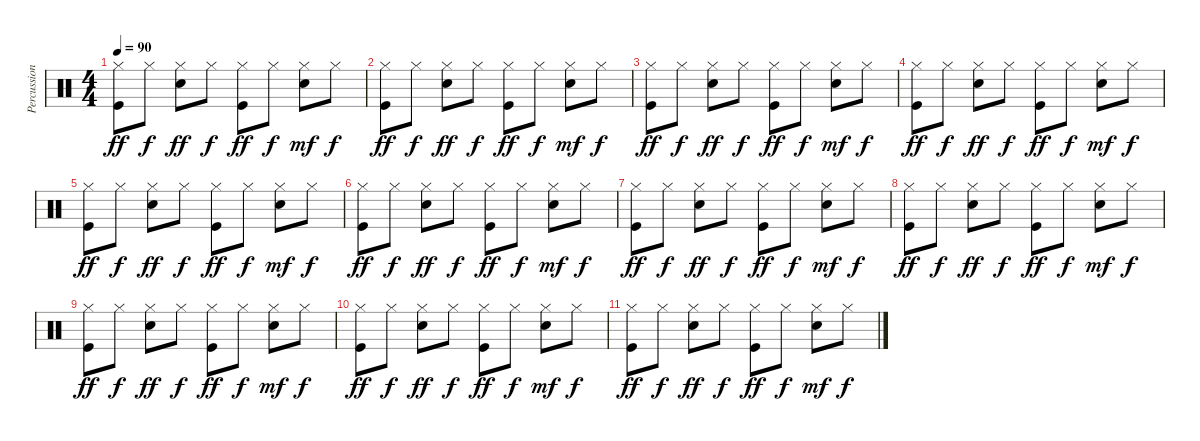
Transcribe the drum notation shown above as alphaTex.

\track ("Percussion" "Percussion") {instrument percussion}
\staff {score}
\articulation defaults
\ts (4 4)
\tempo 90
\clef neutral
\ks c
("Hi-Hat (closed)" "Kick (hit)").8{dy ff} "Hi-Hat (closed)".8{dy f} ("Hi-Hat (closed)" "Snare (hit) 2").8{dy ff} "Hi-Hat (closed)".8{dy f} ("Hi-Hat (closed)" "Kick (hit)").8{dy ff} "Hi-Hat (closed)".8{dy f} ("Hi-Hat (closed)" "Snare (hit) 2").8{dy mf} "Hi-Hat (closed)".8{dy f} |
("Hi-Hat (closed)" "Kick (hit)").8{dy ff} "Hi-Hat (closed)".8{dy f} ("Hi-Hat (closed)" "Snare (hit) 2").8{dy ff} "Hi-Hat (closed)".8{dy f} ("Hi-Hat (closed)" "Kick (hit)").8{dy ff} "Hi-Hat (closed)".8{dy f} ("Hi-Hat (closed)" "Snare (hit) 2").8{dy mf} "Hi-Hat (closed)".8{dy f} |
("Hi-Hat (closed)" "Kick (hit)").8{dy ff} "Hi-Hat (closed)".8{dy f} ("Hi-Hat (closed)" "Snare (hit) 2").8{dy ff} "Hi-Hat (closed)".8{dy f} ("Hi-Hat (closed)" "Kick (hit)").8{dy ff} "Hi-Hat (closed)".8{dy f} ("Hi-Hat (closed)" "Snare (hit) 2").8{dy mf} "Hi-Hat (closed)".8{dy f} |
("Hi-Hat (closed)" "Kick (hit)").8{dy ff} "Hi-Hat (closed)".8{dy f} ("Hi-Hat (closed)" "Snare (hit) 2").8{dy ff} "Hi-Hat (closed)".8{dy f} ("Hi-Hat (closed)" "Kick (hit)").8{dy ff} "Hi-Hat (closed)".8{dy f} ("Hi-Hat (closed)" "Snare (hit) 2").8{dy mf} "Hi-Hat (closed)".8{dy f} |
("Hi-Hat (closed)" "Kick (hit)").8{dy ff} "Hi-Hat (closed)".8{dy f} ("Hi-Hat (closed)" "Snare (hit) 2").8{dy ff} "Hi-Hat (closed)".8{dy f} ("Hi-Hat (closed)" "Kick (hit)").8{dy ff} "Hi-Hat (closed)".8{dy f} ("Hi-Hat (closed)" "Snare (hit) 2").8{dy mf} "Hi-Hat (closed)".8{dy f} |
("Hi-Hat (closed)" "Kick (hit)").8{dy ff} "Hi-Hat (closed)".8{dy f} ("Hi-Hat (closed)" "Snare (hit) 2").8{dy ff} "Hi-Hat (closed)".8{dy f} ("Hi-Hat (closed)" "Kick (hit)").8{dy ff} "Hi-Hat (closed)".8{dy f} ("Hi-Hat (closed)" "Snare (hit) 2").8{dy mf} "Hi-Hat (closed)".8{dy f} |
("Hi-Hat (closed)" "Kick (hit)").8{dy ff} "Hi-Hat (closed)".8{dy f} ("Hi-Hat (closed)" "Snare (hit) 2").8{dy ff} "Hi-Hat (closed)".8{dy f} ("Hi-Hat (closed)" "Kick (hit)").8{dy ff} "Hi-Hat (closed)".8{dy f} ("Hi-Hat (closed)" "Snare (hit) 2").8{dy mf} "Hi-Hat (closed)".8{dy f} |
("Hi-Hat (closed)" "Kick (hit)").8{dy ff} "Hi-Hat (closed)".8{dy f} ("Hi-Hat (closed)" "Snare (hit) 2").8{dy ff} "Hi-Hat (closed)".8{dy f} ("Hi-Hat (closed)" "Kick (hit)").8{dy ff} "Hi-Hat (closed)".8{dy f} ("Hi-Hat (closed)" "Snare (hit) 2").8{dy mf} "Hi-Hat (closed)".8{dy f} |
("Hi-Hat (closed)" "Kick (hit)").8{dy ff} "Hi-Hat (closed)".8{dy f} ("Hi-Hat (closed)" "Snare (hit) 2").8{dy ff} "Hi-Hat (closed)".8{dy f} ("Hi-Hat (closed)" "Kick (hit)").8{dy ff} "Hi-Hat (closed)".8{dy f} ("Hi-Hat (closed)" "Snare (hit) 2").8{dy mf} "Hi-Hat (closed)".8{dy f} |
("Hi-Hat (closed)" "Kick (hit)").8{dy ff} "Hi-Hat (closed)".8{dy f} ("Hi-Hat (closed)" "Snare (hit) 2").8{dy ff} "Hi-Hat (closed)".8{dy f} ("Hi-Hat (closed)" "Kick (hit)").8{dy ff} "Hi-Hat (closed)".8{dy f} ("Hi-Hat (closed)" "Snare (hit) 2").8{dy mf} "Hi-Hat (closed)".8{dy f} |
("Hi-Hat (closed)" "Kick (hit)").8{dy ff} "Hi-Hat (closed)".8{dy f} ("Hi-Hat (closed)" "Snare (hit) 2").8{dy ff} "Hi-Hat (closed)".8{dy f} ("Hi-Hat (closed)" "Kick (hit)").8{dy ff} "Hi-Hat (closed)".8{dy f} ("Hi-Hat (closed)" "Snare (hit) 2").8{dy mf} "Hi-Hat (closed)".8{dy f}
